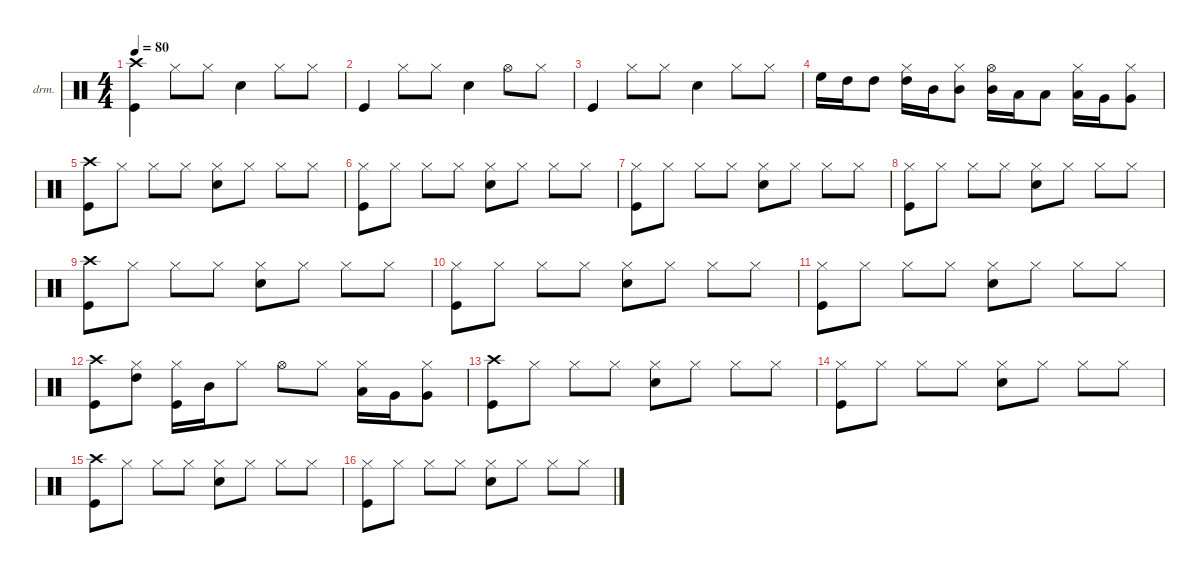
\defaultSystemsLayout 4
\hideDynamics
\bracketExtendMode groupsimilarinstruments
\firstSystemTrackNameOrientation horizontal
\otherSystemsTrackNameOrientation horizontal
\track ("drum" "drm.") {instrument percussion}
\staff {score}
\articulation defaults
\ts (4 4)
\tempo 80
\clef neutral
\ks c
("Crash high (hit)" "Kick (hit)").4{dy f} "Hi-Hat (closed)".8 "Hi-Hat (closed)".8 "Snare (hit) 2".4 "Hi-Hat (closed)".8 "Hi-Hat (closed)".8 |
"Kick (hit)".4 "Hi-Hat (closed)".8 "Hi-Hat (closed)".8 "Snare (hit) 2".4 "Hi-Hat (open)".8 "Hi-Hat (closed)".8 |
"Kick (hit)".4 "Hi-Hat (closed)".8 "Hi-Hat (closed)".8 "Snare (hit) 2".4 "Hi-Hat (closed)".8 "Hi-Hat (closed)".8 |
"High Floor Tom (hit)".16 "High Tom (hit)".16 "High Tom (hit)".8 ("Hi-Hat (closed)" "High Tom (hit)").16 "Mid Tom (hit)".16 ("Hi-Hat (closed)" "Mid Tom (hit)").8 ("Hi-Hat (open)" "Mid Tom (hit)").16 "Low Tom (hit)".16 "Low Tom (hit)".8 ("Hi-Hat (closed)" "Low Tom (hit)").16 "Very Low Tom (hit)".16 ("Hi-Hat (closed)" "Very Low Tom (hit)").8 |
("Crash high (hit)" "Kick (hit)").8 "Hi-Hat (closed)".8 "Hi-Hat (closed)".8 "Hi-Hat (closed)".8 ("Hi-Hat (closed)" "Snare (hit) 2").8 "Hi-Hat (closed)".8 "Hi-Hat (closed)".8 "Hi-Hat (closed)".8 |
("Hi-Hat (closed)" "Kick (hit)").8 "Hi-Hat (closed)".8 "Hi-Hat (closed)".8 "Hi-Hat (closed)".8 ("Hi-Hat (closed)" "Snare (hit) 2").8 "Hi-Hat (closed)".8 "Hi-Hat (closed)".8 "Hi-Hat (closed)".8 |
("Hi-Hat (closed)" "Kick (hit)").8 "Hi-Hat (closed)".8 "Hi-Hat (closed)".8 "Hi-Hat (closed)".8 ("Hi-Hat (closed)" "Snare (hit) 2").8 "Hi-Hat (closed)".8 "Hi-Hat (closed)".8 "Hi-Hat (closed)".8 |
("Hi-Hat (closed)" "Kick (hit)").8 "Hi-Hat (closed)".8 "Hi-Hat (closed)".8 "Hi-Hat (closed)".8 ("Hi-Hat (closed)" "Snare (hit) 2").8 "Hi-Hat (closed)".8 "Hi-Hat (closed)".8 "Hi-Hat (closed)".8 |
("Crash high (hit)" "Kick (hit)").8 "Hi-Hat (closed)".8 "Hi-Hat (closed)".8 "Hi-Hat (closed)".8 ("Hi-Hat (closed)" "Snare (hit) 2").8 "Hi-Hat (closed)".8 "Hi-Hat (closed)".8 "Hi-Hat (closed)".8 |
("Hi-Hat (closed)" "Kick (hit)").8 "Hi-Hat (closed)".8 "Hi-Hat (closed)".8 "Hi-Hat (closed)".8 ("Hi-Hat (closed)" "Snare (hit) 2").8 "Hi-Hat (closed)".8 "Hi-Hat (closed)".8 "Hi-Hat (closed)".8 |
("Hi-Hat (closed)" "Kick (hit)").8 "Hi-Hat (closed)".8 "Hi-Hat (closed)".8 "Hi-Hat (closed)".8 ("Hi-Hat (closed)" "Snare (hit) 2").8 "Hi-Hat (closed)".8 "Hi-Hat (closed)".8 "Hi-Hat (closed)".8 |
("Crash high (hit)" "Kick (hit)").8 ("Hi-Hat (closed)" "High Tom (hit)").8 ("Hi-Hat (closed)" "Kick (hit)").16 "Mid Tom (hit)".16 "Hi-Hat (closed)".8 "Hi-Hat (open)".8 "Hi-Hat (closed)".8 ("Hi-Hat (closed)" "Low Tom (hit)").16 "Very Low Tom (hit)".16 ("Hi-Hat (closed)" "Very Low Tom (hit)").8 |
("Crash high (hit)" "Kick (hit)").8 "Hi-Hat (closed)".8 "Hi-Hat (closed)".8 "Hi-Hat (closed)".8 ("Hi-Hat (closed)" "Snare (hit) 2").8 "Hi-Hat (closed)".8 "Hi-Hat (closed)".8 "Hi-Hat (closed)".8 |
("Hi-Hat (closed)" "Kick (hit)").8 "Hi-Hat (closed)".8 "Hi-Hat (closed)".8 "Hi-Hat (closed)".8 ("Hi-Hat (closed)" "Snare (hit) 2").8 "Hi-Hat (closed)".8 "Hi-Hat (closed)".8 "Hi-Hat (closed)".8 |
("Crash high (hit)" "Kick (hit)").8 "Hi-Hat (closed)".8 "Hi-Hat (closed)".8 "Hi-Hat (closed)".8 ("Hi-Hat (closed)" "Snare (hit) 2").8 "Hi-Hat (closed)".8 "Hi-Hat (closed)".8 "Hi-Hat (closed)".8 |
("Hi-Hat (closed)" "Kick (hit)").8 "Hi-Hat (closed)".8 "Hi-Hat (closed)".8 "Hi-Hat (closed)".8 ("Hi-Hat (closed)" "Snare (hit) 2").8 "Hi-Hat (closed)".8 "Hi-Hat (closed)".8 "Hi-Hat (closed)".8
